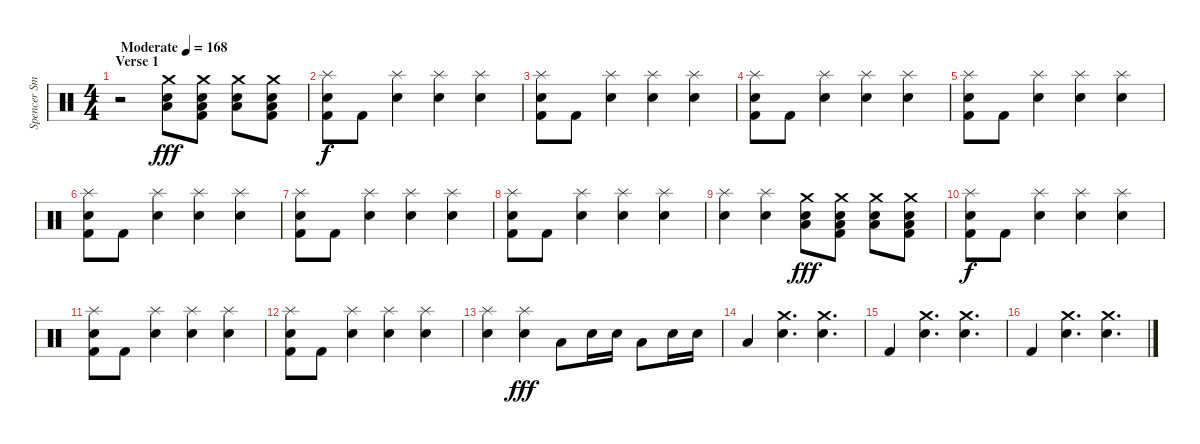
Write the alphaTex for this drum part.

\track ("Spencer Smith" "Spencer Sm") {instrument percussion}
\staff {score}
\articulation defaults
\ts (4 4)
\section ("" "Verse 1")
\tempo (168 "Moderate")
\clef neutral
\ks c
r.2{dy fff} ("Crash medium (hit)" "Low Floor Tom (hit)" "Electric Snare (hit)").8 ("Crash medium (hit)" "Low Floor Tom (hit)" "Snare (hit) 2" "Kick (hit) 2").8 ("Crash medium (hit)" "Low Floor Tom (hit)" "Electric Snare (hit)").8 ("Crash medium (hit)" "Low Floor Tom (hit)" "Snare (hit) 2" "Kick (hit) 2").8 |
("Splash (hit)" "Electric Snare (hit)" "Kick (hit) 2").8{dy f} "Kick (hit) 2".8 ("Splash (hit)" "Electric Snare (hit)").4 ("Splash (hit)" "Electric Snare (hit)").4 ("Splash (hit)" "Electric Snare (hit)").4 |
("Splash (hit)" "Electric Snare (hit)" "Kick (hit) 2").8 "Kick (hit) 2".8 ("Splash (hit)" "Electric Snare (hit)").4 ("Splash (hit)" "Electric Snare (hit)").4 ("Splash (hit)" "Electric Snare (hit)").4 |
("Splash (hit)" "Electric Snare (hit)" "Kick (hit) 2").8 "Kick (hit) 2".8 ("Splash (hit)" "Electric Snare (hit)").4 ("Splash (hit)" "Electric Snare (hit)").4 ("Splash (hit)" "Electric Snare (hit)").4 |
("Splash (hit)" "Electric Snare (hit)" "Kick (hit) 2").8 "Kick (hit) 2".8 ("Splash (hit)" "Electric Snare (hit)").4 ("Splash (hit)" "Electric Snare (hit)").4 ("Splash (hit)" "Electric Snare (hit)").4 |
("Splash (hit)" "Electric Snare (hit)" "Kick (hit) 2").8 "Kick (hit) 2".8 ("Splash (hit)" "Electric Snare (hit)").4 ("Splash (hit)" "Electric Snare (hit)").4 ("Splash (hit)" "Electric Snare (hit)").4 |
("Splash (hit)" "Electric Snare (hit)" "Kick (hit) 2").8 "Kick (hit) 2".8 ("Splash (hit)" "Electric Snare (hit)").4 ("Splash (hit)" "Electric Snare (hit)").4 ("Splash (hit)" "Electric Snare (hit)").4 |
("Splash (hit)" "Electric Snare (hit)" "Kick (hit) 2").8 "Kick (hit) 2".8 ("Splash (hit)" "Electric Snare (hit)").4 ("Splash (hit)" "Electric Snare (hit)").4 ("Splash (hit)" "Electric Snare (hit)").4 |
("Splash (hit)" "Electric Snare (hit)").4 ("Splash (hit)" "Electric Snare (hit)").4 ("Crash medium (hit)" "Low Floor Tom (hit)" "Electric Snare (hit)").8{dy fff} ("Crash medium (hit)" "Low Floor Tom (hit)" "Snare (hit) 2" "Kick (hit) 2").8 ("Crash medium (hit)" "Low Floor Tom (hit)" "Electric Snare (hit)").8 ("Crash medium (hit)" "Low Floor Tom (hit)" "Snare (hit) 2" "Kick (hit) 2").8 |
("Splash (hit)" "Electric Snare (hit)" "Kick (hit) 2").8{dy f} "Kick (hit) 2".8 ("Splash (hit)" "Electric Snare (hit)").4 ("Splash (hit)" "Electric Snare (hit)").4 ("Splash (hit)" "Electric Snare (hit)").4 |
("Splash (hit)" "Electric Snare (hit)" "Kick (hit) 2").8 "Kick (hit) 2".8 ("Splash (hit)" "Electric Snare (hit)").4 ("Splash (hit)" "Electric Snare (hit)").4 ("Splash (hit)" "Electric Snare (hit)").4 |
("Splash (hit)" "Electric Snare (hit)" "Kick (hit) 2").8 "Kick (hit) 2".8 ("Splash (hit)" "Electric Snare (hit)").4 ("Splash (hit)" "Electric Snare (hit)").4 ("Splash (hit)" "Electric Snare (hit)").4 |
("Splash (hit)" "Electric Snare (hit)").4 ("Splash (hit)" "Electric Snare (hit)").4{dy fff} "Low Floor Tom (hit)".8 "Electric Snare (hit)".16 "Electric Snare (hit)".16 "Low Floor Tom (hit)".8 "Electric Snare (hit)".16 "Electric Snare (hit)".16 |
"Low Floor Tom (hit)".4 ("Crash medium (hit)" "Electric Snare (hit)").4{d} ("Crash medium (hit)" "Electric Snare (hit)").4{d} |
"Kick (hit) 2".4 ("Crash medium (hit)" "Electric Snare (hit)").4{d} ("Crash medium (hit)" "Electric Snare (hit)").4{d} |
"Kick (hit) 2".4 ("Crash medium (hit)" "Electric Snare (hit)").4{d} ("Crash medium (hit)" "Electric Snare (hit)").4{d}
